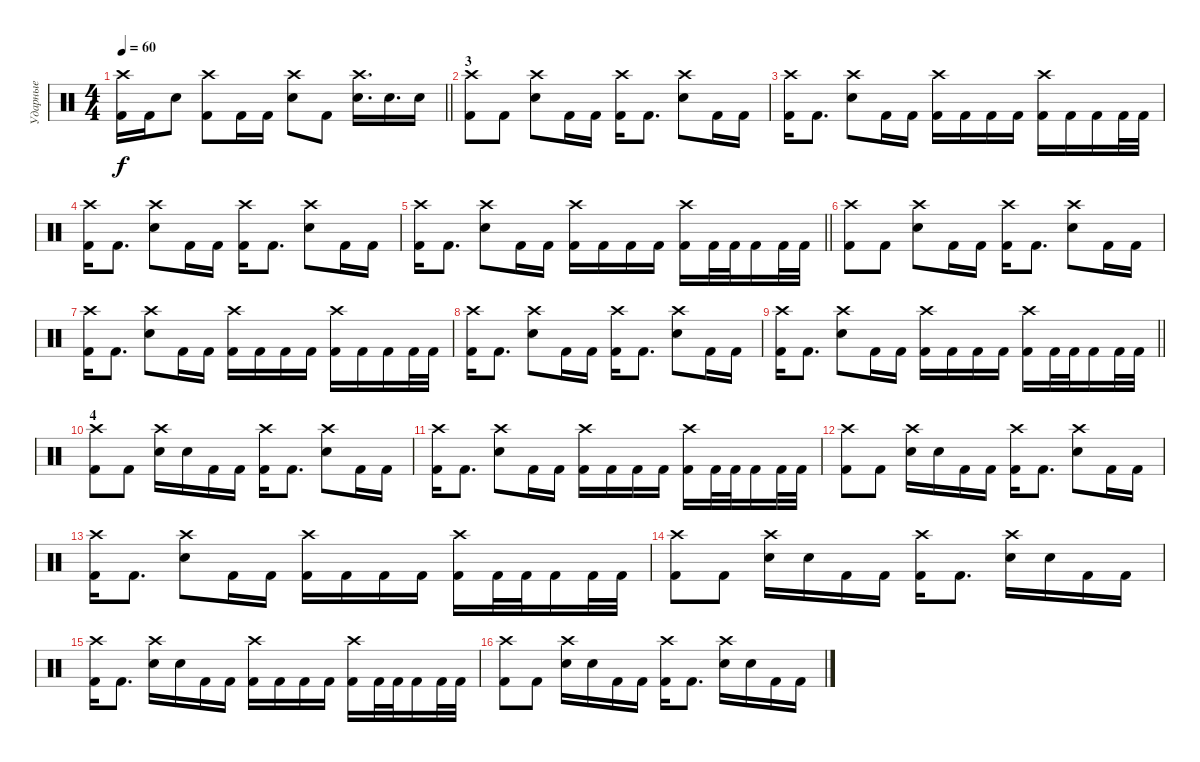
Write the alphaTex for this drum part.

\track ("Ударные" "Ударные") {instrument percussion}
\staff {score}
\articulation defaults
\ts (4 4)
\tempo 60
\clef neutral
\barLineRight lightlight
\ks c
("Crash high (hit)" "Kick (hit) 2").16{dy f} "Kick (hit) 2".16 "Snare (hit) 2".8 ("Crash high (hit)" "Kick (hit) 2").8 "Kick (hit) 2".16 "Kick (hit) 2".16 ("Crash high (hit)" "Snare (hit) 2").8 "Kick (hit) 2".8 ("Crash high (hit)" "Snare (hit) 2").16{d} "Snare (hit) 2".16{d} "Snare (hit) 2".16 |
\section ("" "3")
("Crash high (hit)" "Kick (hit) 2").8 "Kick (hit) 2".8 ("Crash high (hit)" "Snare (hit) 2").8 "Kick (hit) 2".16 "Kick (hit) 2".16 ("Crash high (hit)" "Kick (hit) 2").16 "Kick (hit) 2".8{d} ("Crash high (hit)" "Snare (hit) 2").8 "Kick (hit) 2".16 "Kick (hit) 2".16 |
("Crash high (hit)" "Kick (hit) 2").16 "Kick (hit) 2".8{d} ("Crash high (hit)" "Snare (hit) 2").8 "Kick (hit) 2".16 "Kick (hit) 2".16 ("Crash high (hit)" "Kick (hit) 2").16 "Kick (hit) 2".16 "Kick (hit) 2".16 "Kick (hit) 2".16 ("Crash high (hit)" "Kick (hit) 2").16 "Kick (hit) 2".16 "Kick (hit) 2".16 "Kick (hit) 2".32 "Kick (hit) 2".32 |
("Crash high (hit)" "Kick (hit) 2").16 "Kick (hit) 2".8{d} ("Crash high (hit)" "Snare (hit) 2").8 "Kick (hit) 2".16 "Kick (hit) 2".16 ("Crash high (hit)" "Kick (hit) 2").16 "Kick (hit) 2".8{d} ("Crash high (hit)" "Snare (hit) 2").8 "Kick (hit) 2".16 "Kick (hit) 2".16 |
\barLineRight lightlight
("Crash high (hit)" "Kick (hit) 2").16 "Kick (hit) 2".8{d} ("Crash high (hit)" "Snare (hit) 2").8 "Kick (hit) 2".16 "Kick (hit) 2".16 ("Crash high (hit)" "Kick (hit) 2").16 "Kick (hit) 2".16 "Kick (hit) 2".16 "Kick (hit) 2".16 ("Crash high (hit)" "Kick (hit) 2").16 "Kick (hit) 2".32 "Kick (hit) 2".32 "Kick (hit) 2".16 "Kick (hit) 2".32 "Kick (hit) 2".32 |
("Crash high (hit)" "Kick (hit) 2").8 "Kick (hit) 2".8 ("Crash high (hit)" "Snare (hit) 2").8 "Kick (hit) 2".16 "Kick (hit) 2".16 ("Crash high (hit)" "Kick (hit) 2").16 "Kick (hit) 2".8{d} ("Crash high (hit)" "Snare (hit) 2").8 "Kick (hit) 2".16 "Kick (hit) 2".16 |
("Crash high (hit)" "Kick (hit) 2").16 "Kick (hit) 2".8{d} ("Crash high (hit)" "Snare (hit) 2").8 "Kick (hit) 2".16 "Kick (hit) 2".16 ("Crash high (hit)" "Kick (hit) 2").16 "Kick (hit) 2".16 "Kick (hit) 2".16 "Kick (hit) 2".16 ("Crash high (hit)" "Kick (hit) 2").16 "Kick (hit) 2".16 "Kick (hit) 2".16 "Kick (hit) 2".32 "Kick (hit) 2".32 |
("Crash high (hit)" "Kick (hit) 2").16 "Kick (hit) 2".8{d} ("Crash high (hit)" "Snare (hit) 2").8 "Kick (hit) 2".16 "Kick (hit) 2".16 ("Crash high (hit)" "Kick (hit) 2").16 "Kick (hit) 2".8{d} ("Crash high (hit)" "Snare (hit) 2").8 "Kick (hit) 2".16 "Kick (hit) 2".16 |
\barLineRight lightlight
("Crash high (hit)" "Kick (hit) 2").16 "Kick (hit) 2".8{d} ("Crash high (hit)" "Snare (hit) 2").8 "Kick (hit) 2".16 "Kick (hit) 2".16 ("Crash high (hit)" "Kick (hit) 2").16 "Kick (hit) 2".16 "Kick (hit) 2".16 "Kick (hit) 2".16 ("Crash high (hit)" "Kick (hit) 2").16 "Kick (hit) 2".32 "Kick (hit) 2".32 "Kick (hit) 2".16 "Kick (hit) 2".32 "Kick (hit) 2".32 |
\section ("" "4")
("Crash high (hit)" "Kick (hit) 2").8 "Kick (hit) 2".8 ("Crash high (hit)" "Snare (hit) 2").16 "Snare (hit) 2".16 "Kick (hit) 2".16 "Kick (hit) 2".16 ("Crash high (hit)" "Kick (hit) 2").16 "Kick (hit) 2".8{d} ("Crash high (hit)" "Snare (hit) 2").8 "Kick (hit) 2".16 "Kick (hit) 2".16 |
("Crash high (hit)" "Kick (hit) 2").16 "Kick (hit) 2".8{d} ("Crash high (hit)" "Snare (hit) 2").8 "Kick (hit) 2".16 "Kick (hit) 2".16 ("Crash high (hit)" "Kick (hit) 2").16 "Kick (hit) 2".16 "Kick (hit) 2".16 "Kick (hit) 2".16 ("Crash high (hit)" "Kick (hit) 2").16 "Kick (hit) 2".32 "Kick (hit) 2".32 "Kick (hit) 2".16 "Kick (hit) 2".32 "Kick (hit) 2".32 |
("Crash high (hit)" "Kick (hit) 2").8 "Kick (hit) 2".8 ("Crash high (hit)" "Snare (hit) 2").16 "Snare (hit) 2".16 "Kick (hit) 2".16 "Kick (hit) 2".16 ("Crash high (hit)" "Kick (hit) 2").16 "Kick (hit) 2".8{d} ("Crash high (hit)" "Snare (hit) 2").8 "Kick (hit) 2".16 "Kick (hit) 2".16 |
("Crash high (hit)" "Kick (hit) 2").16 "Kick (hit) 2".8{d} ("Crash high (hit)" "Snare (hit) 2").8 "Kick (hit) 2".16 "Kick (hit) 2".16 ("Crash high (hit)" "Kick (hit) 2").16 "Kick (hit) 2".16 "Kick (hit) 2".16 "Kick (hit) 2".16 ("Crash high (hit)" "Kick (hit) 2").16 "Kick (hit) 2".32 "Kick (hit) 2".32 "Kick (hit) 2".16 "Kick (hit) 2".32 "Kick (hit) 2".32 |
("Crash high (hit)" "Kick (hit) 2").8 "Kick (hit) 2".8 ("Crash high (hit)" "Snare (hit) 2").16 "Snare (hit) 2".16 "Kick (hit) 2".16 "Kick (hit) 2".16 ("Crash high (hit)" "Kick (hit) 2").16 "Kick (hit) 2".8{d} ("Crash high (hit)" "Snare (hit) 2").16 "Snare (hit) 2".16 "Kick (hit) 2".16 "Kick (hit) 2".16 |
("Crash high (hit)" "Kick (hit) 2").16 "Kick (hit) 2".8{d} ("Crash high (hit)" "Snare (hit) 2").16 "Snare (hit) 2".16 "Kick (hit) 2".16 "Kick (hit) 2".16 ("Crash high (hit)" "Kick (hit) 2").16 "Kick (hit) 2".16 "Kick (hit) 2".16 "Kick (hit) 2".16 ("Crash high (hit)" "Kick (hit) 2").16 "Kick (hit) 2".32 "Kick (hit) 2".32 "Kick (hit) 2".16 "Kick (hit) 2".32 "Kick (hit) 2".32 |
("Crash high (hit)" "Kick (hit) 2").8 "Kick (hit) 2".8 ("Crash high (hit)" "Snare (hit) 2").16 "Snare (hit) 2".16 "Kick (hit) 2".16 "Kick (hit) 2".16 ("Crash high (hit)" "Kick (hit) 2").16 "Kick (hit) 2".8{d} ("Crash high (hit)" "Snare (hit) 2").16 "Snare (hit) 2".16 "Kick (hit) 2".16 "Kick (hit) 2".16
